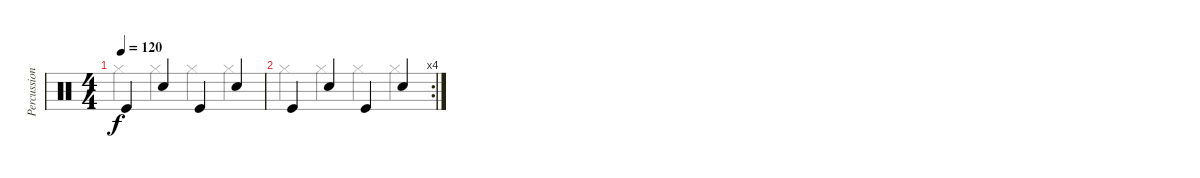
\track ("Percussion" "Percussion") {instrument percussion}
\staff {score}
\articulation defaults
\voice
\ts (4 4)
\tempo 120
\clef neutral
\ks c "Kick (hit)".4{dy f} "Snare (hit) 2".4 "Kick (hit)".4 "Snare (hit) 2".4
|
\rc 4 "Kick (hit)".4 "Snare (hit) 2".4 "Kick (hit)".4 "Snare (hit) 2".4
\voice
\clef neutral
\ks c "Hi-Hat (closed)".4{dy f} "Hi-Hat (closed)".4 "Hi-Hat (closed)".4 "Hi-Hat (closed)".4
|
"Hi-Hat (closed)".4 "Hi-Hat (closed)".4 "Hi-Hat (closed)".4 "Hi-Hat (closed)".4
